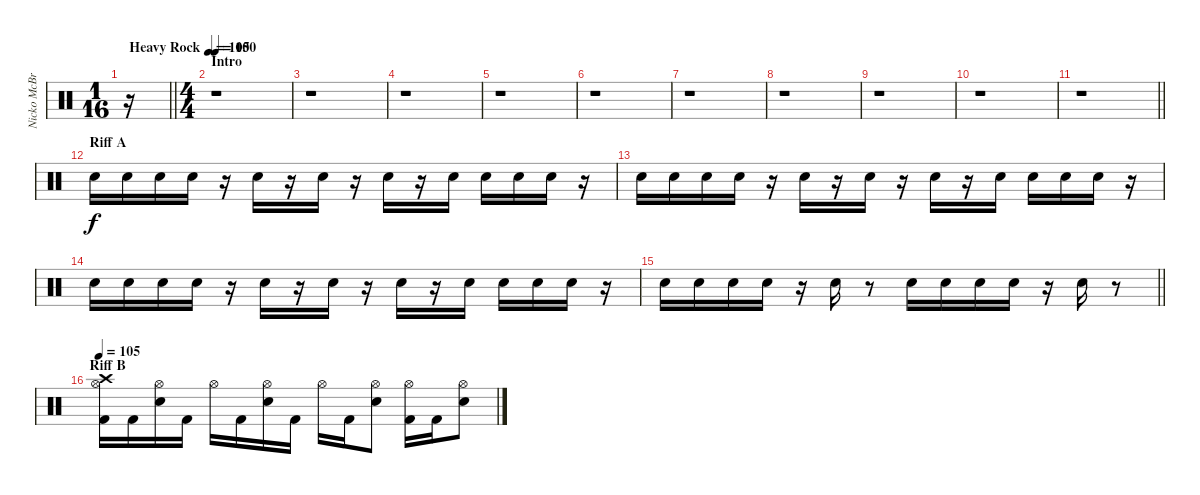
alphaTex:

\track ("Nicko McBrain" "Nicko McBr") {instrument percussion}
\staff {score}
\articulation defaults
\ts (1 16)
\tempo (105 "Heavy Rock")
\clef neutral
\barLineRight lightlight
\ks c
r.16{dy f} |
\ts (4 4)
\section ("" "Intro")
\tempo 100
r.1 |
r.1 |
r.1 |
r.1 |
r.1 |
r.1 |
r.1 |
r.1 |
r.1 |
\barLineRight lightlight
r.1 |
\section ("" "Riff A")
"Snare (hit) 2".16 "Snare (hit) 2".16 "Snare (hit) 2".16 "Snare (hit) 2".16 r.16 "Snare (hit) 2".16 r.16 "Snare (hit) 2".16 r.16 "Snare (hit) 2".16 r.16 "Snare (hit) 2".16 "Snare (hit) 2".16 "Snare (hit) 2".16 "Snare (hit) 2".16 r.16 |
"Snare (hit) 2".16 "Snare (hit) 2".16 "Snare (hit) 2".16 "Snare (hit) 2".16 r.16 "Snare (hit) 2".16 r.16 "Snare (hit) 2".16 r.16 "Snare (hit) 2".16 r.16 "Snare (hit) 2".16 "Snare (hit) 2".16 "Snare (hit) 2".16 "Snare (hit) 2".16 r.16 |
"Snare (hit) 2".16 "Snare (hit) 2".16 "Snare (hit) 2".16 "Snare (hit) 2".16 r.16 "Snare (hit) 2".16 r.16 "Snare (hit) 2".16 r.16 "Snare (hit) 2".16 r.16 "Snare (hit) 2".16 "Snare (hit) 2".16 "Snare (hit) 2".16 "Snare (hit) 2".16 r.16 |
\barLineRight lightlight "Snare (hit) 2".16 "Snare (hit) 2".16 "Snare (hit) 2".16 "Snare (hit) 2".16
r.16 "Snare (hit) 2".16 r.8 "Snare (hit) 2".16 "Snare (hit) 2".16 "Snare (hit) 2".16 "Snare (hit) 2".16 r.16 "Snare (hit) 2".16 r.8 |
\section ("" "Riff B")
\tempo 105
("Kick (hit) 2" "Hi-Hat (open)" "Crash high (hit)").16 "Kick (hit) 2".16 ("Snare (hit) 2" "Hi-Hat (open)").16 "Kick (hit) 2".16 "Hi-Hat (open)".16 "Kick (hit) 2".16 ("Snare (hit) 2" "Hi-Hat (open)").16 "Kick (hit) 2".16 "Hi-Hat (open)".16 "Kick (hit) 2".16 ("Snare (hit) 2" "Hi-Hat (open)").8 ("Kick (hit) 2" "Hi-Hat (open)").16 "Kick (hit) 2".16 ("Snare (hit) 2" "Hi-Hat (open)").8
